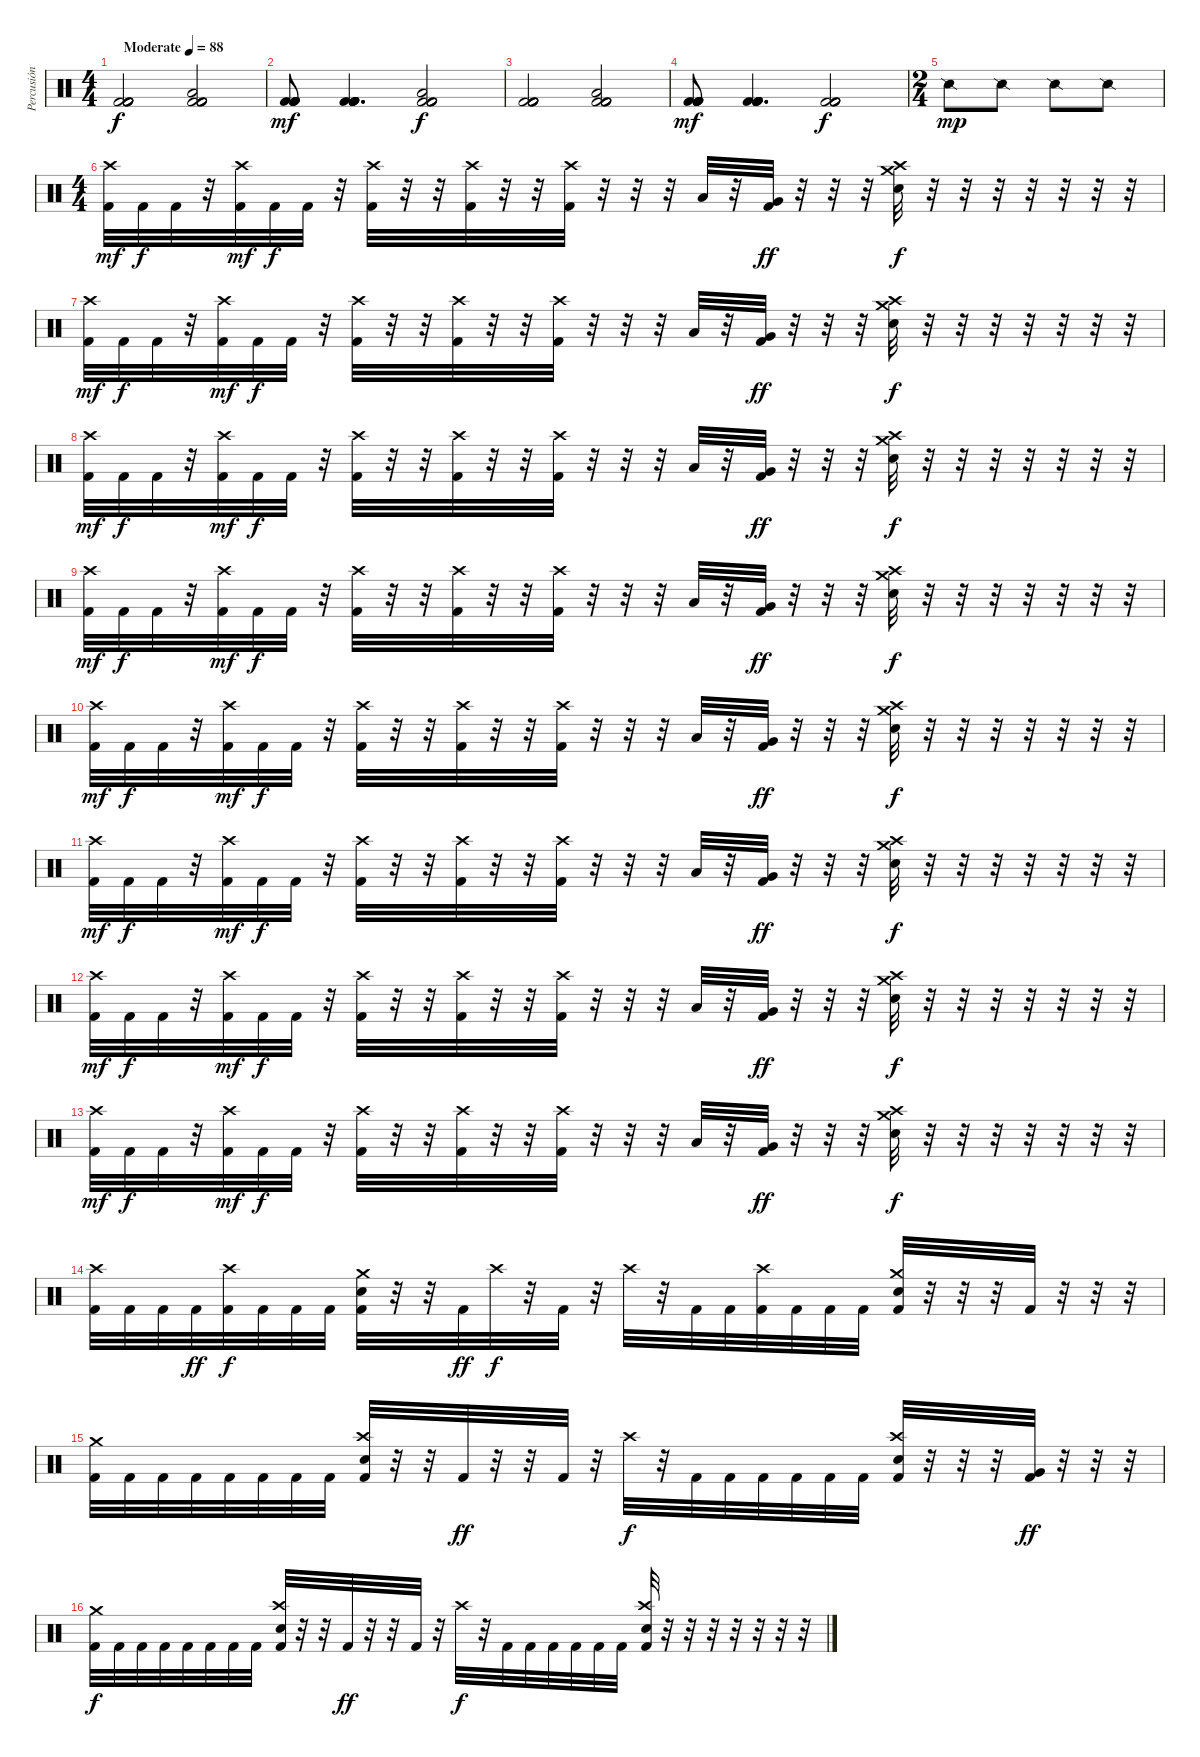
\track ("Percusión" "Percusión") {instrument percussion}
\staff {score}
\articulation defaults
\ts (4 4)
\tempo (88 "Moderate")
\clef neutral
\ks c
("Kick (hit) 2" "Kick (hit) 2" "Kick (hit) 2" "Kick (hit) 2" "Kick (hit) 2" "Kick (hit) 2").2{dy f} ("Low Floor Tom (hit)" "Kick (hit) 2" "Kick (hit) 2" "Kick (hit) 2" "Kick (hit) 2" "Kick (hit) 2").2 |
("Kick (hit) 2" "Kick (hit) 2" "Kick (hit) 2" "Kick (hit) 2" "Kick (hit) 2").8{dy mf} ("Kick (hit) 2" "Kick (hit) 2" "Kick (hit) 2" "Kick (hit) 2" "Kick (hit) 2").4{d} ("Low Floor Tom (hit)" "Kick (hit) 2" "Kick (hit) 2" "Kick (hit) 2" "Kick (hit) 2" "Kick (hit) 2").2{dy f} |
("Kick (hit) 2" "Kick (hit) 2" "Kick (hit) 2" "Kick (hit) 2" "Kick (hit) 2" "Kick (hit) 2").2 ("Low Floor Tom (hit)" "Kick (hit) 2" "Kick (hit) 2" "Kick (hit) 2" "Kick (hit) 2" "Kick (hit) 2").2 |
("Kick (hit) 2" "Kick (hit) 2" "Kick (hit) 2" "Kick (hit) 2" "Kick (hit) 2").8{dy mf} ("Kick (hit) 2" "Kick (hit) 2" "Kick (hit) 2" "Kick (hit) 2" "Kick (hit) 2").4{d} ("Kick (hit) 2" "Kick (hit) 2" "Kick (hit) 2" "Kick (hit) 2" "Kick (hit) 2").2{dy f} |
\ts (2 4)
"Snare (side stick) 2".8{dy mp} "Snare (side stick) 2".8 "Snare (side stick) 2".8 "Snare (side stick) 2".8 |
\ts (4 4)
("Crash high (hit)" "Kick (hit) 2").32{dy mf} "Kick (hit) 2".32{dy f} "Kick (hit) 2".32 r.32 ("Crash high (hit)" "Kick (hit) 2").32{dy mf} "Kick (hit) 2".32{dy f} "Kick (hit) 2".32 r.32 ("Crash high (hit)" "Kick (hit) 2").32 r.32 r.32 ("Crash high (hit)" "Kick (hit) 2").32 r.32 r.32 ("Crash high (hit)" "Kick (hit) 2").32 r.32 r.32 r.32 "Low Floor Tom (hit)".32 r.32 ("Very Low Tom (hit)" "Kick (hit) 2").32{dy ff} r.32 r.32 r.32 ("Crash medium (hit)" "Crash high (hit)" "Electric Snare (hit)").32{dy f} r.32 r.32 r.32 r.32 r.32 r.32 r.32 |
("Crash high (hit)" "Kick (hit) 2").32{dy mf} "Kick (hit) 2".32{dy f} "Kick (hit) 2".32 r.32 ("Crash high (hit)" "Kick (hit) 2").32{dy mf} "Kick (hit) 2".32{dy f} "Kick (hit) 2".32 r.32 ("Crash high (hit)" "Kick (hit) 2").32 r.32 r.32 ("Crash high (hit)" "Kick (hit) 2").32 r.32 r.32 ("Crash high (hit)" "Kick (hit) 2").32 r.32 r.32 r.32 "Low Floor Tom (hit)".32 r.32 ("Very Low Tom (hit)" "Kick (hit) 2").32{dy ff} r.32 r.32 r.32 ("Crash medium (hit)" "Crash high (hit)" "Electric Snare (hit)").32{dy f} r.32 r.32 r.32 r.32 r.32 r.32 r.32 |
("Crash high (hit)" "Kick (hit) 2").32{dy mf} "Kick (hit) 2".32{dy f} "Kick (hit) 2".32 r.32 ("Crash high (hit)" "Kick (hit) 2").32{dy mf} "Kick (hit) 2".32{dy f} "Kick (hit) 2".32 r.32 ("Crash high (hit)" "Kick (hit) 2").32 r.32 r.32 ("Crash high (hit)" "Kick (hit) 2").32 r.32 r.32 ("Crash high (hit)" "Kick (hit) 2").32 r.32 r.32 r.32 "Low Floor Tom (hit)".32 r.32 ("Very Low Tom (hit)" "Kick (hit) 2").32{dy ff} r.32 r.32 r.32 ("Crash medium (hit)" "Crash high (hit)" "Electric Snare (hit)").32{dy f} r.32 r.32 r.32 r.32 r.32 r.32 r.32 |
("Crash high (hit)" "Kick (hit) 2").32{dy mf} "Kick (hit) 2".32{dy f} "Kick (hit) 2".32 r.32 ("Crash high (hit)" "Kick (hit) 2").32{dy mf} "Kick (hit) 2".32{dy f} "Kick (hit) 2".32 r.32 ("Crash high (hit)" "Kick (hit) 2").32 r.32 r.32 ("Crash high (hit)" "Kick (hit) 2").32 r.32 r.32 ("Crash high (hit)" "Kick (hit) 2").32 r.32 r.32 r.32 "Low Floor Tom (hit)".32 r.32 ("Very Low Tom (hit)" "Kick (hit) 2").32{dy ff} r.32 r.32 r.32 ("Crash medium (hit)" "Crash high (hit)" "Electric Snare (hit)").32{dy f} r.32 r.32 r.32 r.32 r.32 r.32 r.32 |
("Crash high (hit)" "Kick (hit) 2").32{dy mf} "Kick (hit) 2".32{dy f} "Kick (hit) 2".32 r.32 ("Crash high (hit)" "Kick (hit) 2").32{dy mf} "Kick (hit) 2".32{dy f} "Kick (hit) 2".32 r.32 ("Crash high (hit)" "Kick (hit) 2").32 r.32 r.32 ("Crash high (hit)" "Kick (hit) 2").32 r.32 r.32 ("Crash high (hit)" "Kick (hit) 2").32 r.32 r.32 r.32 "Low Floor Tom (hit)".32 r.32 ("Very Low Tom (hit)" "Kick (hit) 2").32{dy ff} r.32 r.32 r.32 ("Crash medium (hit)" "Crash high (hit)" "Electric Snare (hit)").32{dy f} r.32 r.32 r.32 r.32 r.32 r.32 r.32 |
("Crash high (hit)" "Kick (hit) 2").32{dy mf} "Kick (hit) 2".32{dy f} "Kick (hit) 2".32 r.32 ("Crash high (hit)" "Kick (hit) 2").32{dy mf} "Kick (hit) 2".32{dy f} "Kick (hit) 2".32 r.32 ("Crash high (hit)" "Kick (hit) 2").32 r.32 r.32 ("Crash high (hit)" "Kick (hit) 2").32 r.32 r.32 ("Crash high (hit)" "Kick (hit) 2").32 r.32 r.32 r.32 "Low Floor Tom (hit)".32 r.32 ("Very Low Tom (hit)" "Kick (hit) 2").32{dy ff} r.32 r.32 r.32 ("Crash medium (hit)" "Crash high (hit)" "Electric Snare (hit)").32{dy f} r.32 r.32 r.32 r.32 r.32 r.32 r.32 |
("Crash high (hit)" "Kick (hit) 2").32{dy mf} "Kick (hit) 2".32{dy f} "Kick (hit) 2".32 r.32 ("Crash high (hit)" "Kick (hit) 2").32{dy mf} "Kick (hit) 2".32{dy f} "Kick (hit) 2".32 r.32 ("Crash high (hit)" "Kick (hit) 2").32 r.32 r.32 ("Crash high (hit)" "Kick (hit) 2").32 r.32 r.32 ("Crash high (hit)" "Kick (hit) 2").32 r.32 r.32 r.32 "Low Floor Tom (hit)".32 r.32 ("Very Low Tom (hit)" "Kick (hit) 2").32{dy ff} r.32 r.32 r.32 ("Crash medium (hit)" "Crash high (hit)" "Electric Snare (hit)").32{dy f} r.32 r.32 r.32 r.32 r.32 r.32 r.32 |
("Crash high (hit)" "Kick (hit) 2").32{dy mf} "Kick (hit) 2".32{dy f} "Kick (hit) 2".32 r.32 ("Crash high (hit)" "Kick (hit) 2").32{dy mf} "Kick (hit) 2".32{dy f} "Kick (hit) 2".32 r.32 ("Crash high (hit)" "Kick (hit) 2").32 r.32 r.32 ("Crash high (hit)" "Kick (hit) 2").32 r.32 r.32 ("Crash high (hit)" "Kick (hit) 2").32 r.32 r.32 r.32 "Low Floor Tom (hit)".32 r.32 ("Very Low Tom (hit)" "Kick (hit) 2").32{dy ff} r.32 r.32 r.32 ("Crash medium (hit)" "Crash high (hit)" "Electric Snare (hit)").32{dy f} r.32 r.32 r.32 r.32 r.32 r.32 r.32 |
("Crash high (hit)" "Kick (hit) 2").32 "Kick (hit) 2".32 "Kick (hit) 2".32 "Kick (hit) 2".32{dy ff} ("Crash high (hit)" "Kick (hit) 2").32{dy f} "Kick (hit) 2".32 "Kick (hit) 2".32 "Kick (hit) 2".32 ("Crash medium (hit)" "Electric Snare (hit)" "Kick (hit) 2").32 r.32 r.32 "Kick (hit) 2".32{dy ff} "Crash high (hit)".32{dy f} r.32 "Kick (hit) 2".32 r.32 "Crash high (hit)".32 r.32 "Kick (hit) 2".32 "Kick (hit) 2".32 ("Crash high (hit)" "Kick (hit) 2").32 "Kick (hit) 2".32 "Kick (hit) 2".32 "Kick (hit) 2".32 ("Crash medium (hit)" "Electric Snare (hit)" "Kick (hit) 2").32 r.32 r.32 r.32 "Kick (hit) 2".32 r.32 r.32 r.32 |
("Crash medium (hit)" "Kick (hit) 2").32 "Kick (hit) 2".32 "Kick (hit) 2".32 "Kick (hit) 2".32 "Kick (hit) 2".32 "Kick (hit) 2".32 "Kick (hit) 2".32 "Kick (hit) 2".32 ("Crash high (hit)" "Electric Snare (hit)" "Kick (hit) 2").32 r.32 r.32 "Kick (hit) 2".32{dy ff} r.32 r.32 "Kick (hit) 2".32 r.32 "Crash high (hit)".32{dy f} r.32 "Kick (hit) 2".32 "Kick (hit) 2".32 "Kick (hit) 2".32 "Kick (hit) 2".32 "Kick (hit) 2".32 "Kick (hit) 2".32 ("Crash high (hit)" "Electric Snare (hit)" "Kick (hit) 2").32 r.32 r.32 r.32 ("Very Low Tom (hit)" "Kick (hit) 2").32{dy ff} r.32 r.32 r.32 |
("Crash medium (hit)" "Kick (hit) 2").32{dy f} "Kick (hit) 2".32 "Kick (hit) 2".32 "Kick (hit) 2".32 "Kick (hit) 2".32 "Kick (hit) 2".32 "Kick (hit) 2".32 "Kick (hit) 2".32 ("Crash high (hit)" "Electric Snare (hit)" "Kick (hit) 2").32 r.32 r.32 "Kick (hit) 2".32{dy ff} r.32 r.32 "Kick (hit) 2".32 r.32 "Crash high (hit)".32{dy f} r.32 "Kick (hit) 2".32 "Kick (hit) 2".32 "Kick (hit) 2".32 "Kick (hit) 2".32 "Kick (hit) 2".32 "Kick (hit) 2".32 ("Crash high (hit)" "Electric Snare (hit)" "Kick (hit) 2").32 r.32 r.32 r.32 r.32 r.32 r.32 r.32
